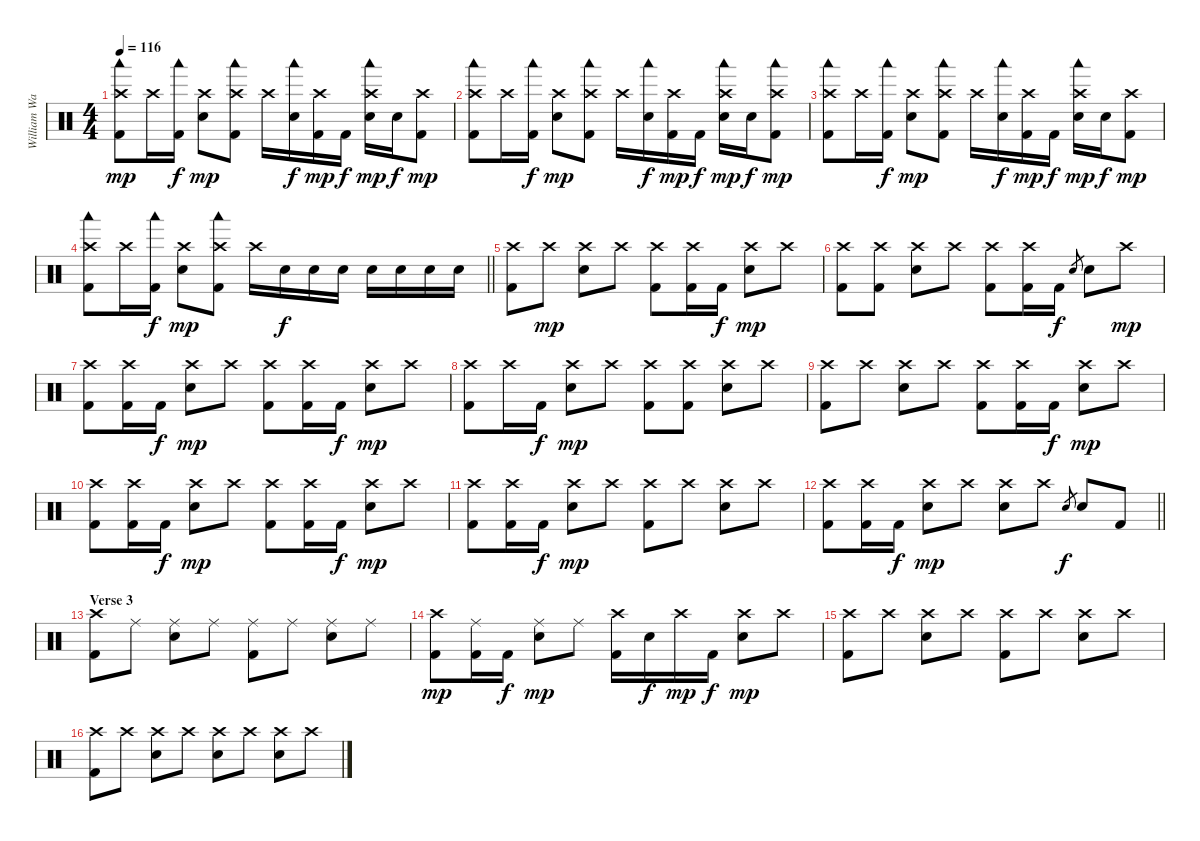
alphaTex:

\track ("William Ward" "William Wa") {instrument percussion}
\staff {score}
\articulation defaults
\ts (4 4)
\tempo 116
\clef neutral
\ks c
("Crash high (hit)" "Woodblock low (hit)" "Kick (hit) 2").8{dy mp} "Crash high (hit)".16 ("Woodblock low (hit)" "Kick (hit) 2").16{dy f} ("Crash high (hit)" "Snare (hit) 2").8{dy mp} ("Crash high (hit)" "Woodblock low (hit)" "Kick (hit) 2").8 "Crash high (hit)".16 ("Woodblock low (hit)" "Snare (hit) 2").16{dy f} ("Crash high (hit)" "Kick (hit) 2").16{dy mp} "Kick (hit) 2".16{dy f} ("Crash high (hit)" "Woodblock low (hit)" "Snare (hit) 2").16{dy mp} "Snare (hit) 2".16{dy f} ("Crash high (hit)" "Kick (hit) 2").8{dy mp} |
("Crash high (hit)" "Woodblock low (hit)" "Kick (hit) 2").8 "Crash high (hit)".16 ("Woodblock low (hit)" "Kick (hit) 2").16{dy f} ("Crash high (hit)" "Snare (hit) 2").8{dy mp} ("Crash high (hit)" "Woodblock low (hit)" "Kick (hit) 2").8 "Crash high (hit)".16 ("Woodblock low (hit)" "Snare (hit) 2").16{dy f} ("Crash high (hit)" "Kick (hit) 2").16{dy mp} "Kick (hit) 2".16{dy f} ("Crash high (hit)" "Woodblock low (hit)" "Snare (hit) 2").16{dy mp} "Snare (hit) 2".16{dy f} ("Crash high (hit)" "Woodblock low (hit)" "Kick (hit) 2").8{dy mp} |
("Crash high (hit)" "Woodblock low (hit)" "Kick (hit) 2").8 "Crash high (hit)".16 ("Woodblock low (hit)" "Kick (hit) 2").16{dy f} ("Crash high (hit)" "Snare (hit) 2").8{dy mp} ("Crash high (hit)" "Woodblock low (hit)" "Kick (hit) 2").8 "Crash high (hit)".16 ("Woodblock low (hit)" "Snare (hit) 2").16{dy f} ("Crash high (hit)" "Kick (hit) 2").16{dy mp} "Kick (hit) 2".16{dy f} ("Crash high (hit)" "Woodblock low (hit)" "Snare (hit) 2").16{dy mp} "Snare (hit) 2".16{dy f} ("Crash high (hit)" "Kick (hit) 2").8{dy mp} |
\barLineRight lightlight
("Crash high (hit)" "Woodblock low (hit)" "Kick (hit) 2").8 "Crash high (hit)".16 ("Woodblock low (hit)" "Kick (hit) 2").16{dy f} ("Crash high (hit)" "Snare (hit) 2").8{dy mp} ("Crash high (hit)" "Woodblock low (hit)" "Kick (hit) 2").8 "Crash high (hit)".16 "Snare (hit) 2".16{dy f} "Snare (hit) 2".16 "Snare (hit) 2".16 "Snare (hit) 2".16 "Snare (hit) 2".16 "Snare (hit) 2".16 "Snare (hit) 2".16 |
("Crash high (hit)" "Kick (hit) 2").8 "Crash high (hit)".8{dy mp} ("Crash high (hit)" "Snare (hit) 2").8 "Crash high (hit)".8 ("Crash high (hit)" "Kick (hit) 2").8 ("Crash high (hit)" "Kick (hit) 2").16 "Kick (hit) 2".16{dy f} ("Crash high (hit)" "Snare (hit) 2").8{dy mp} "Crash high (hit)".8 |
("Crash high (hit)" "Kick (hit) 2").8 ("Crash high (hit)" "Kick (hit) 2").8 ("Crash high (hit)" "Snare (hit) 2").8 "Crash high (hit)".8 ("Crash high (hit)" "Kick (hit) 2").8 ("Crash high (hit)" "Kick (hit) 2").16 "Kick (hit) 2".16{dy f} "Snare (hit) 2".8{gr} "Snare (hit) 2".8 "Crash high (hit)".8{dy mp} |
("Crash high (hit)" "Kick (hit) 2").8 ("Crash high (hit)" "Kick (hit) 2").16 "Kick (hit) 2".16{dy f} ("Crash high (hit)" "Snare (hit) 2").8{dy mp} "Crash high (hit)".8 ("Crash high (hit)" "Kick (hit) 2").8 ("Crash high (hit)" "Kick (hit) 2").16 "Kick (hit) 2".16{dy f} ("Crash high (hit)" "Snare (hit) 2").8{dy mp} "Crash high (hit)".8 |
("Crash high (hit)" "Kick (hit) 2").8 "Crash high (hit)".16 "Kick (hit) 2".16{dy f} ("Crash high (hit)" "Snare (hit) 2").8{dy mp} "Crash high (hit)".8 ("Crash high (hit)" "Kick (hit) 2").8 ("Crash high (hit)" "Kick (hit) 2").8 ("Crash high (hit)" "Snare (hit) 2").8 "Crash high (hit)".8 |
("Crash high (hit)" "Kick (hit) 2").8 "Crash high (hit)".8 ("Crash high (hit)" "Snare (hit) 2").8 "Crash high (hit)".8 ("Crash high (hit)" "Kick (hit) 2").8 ("Crash high (hit)" "Kick (hit) 2").16 "Kick (hit) 2".16{dy f} ("Crash high (hit)" "Snare (hit) 2").8{dy mp} "Crash high (hit)".8 |
("Crash high (hit)" "Kick (hit) 2").8 ("Crash high (hit)" "Kick (hit) 2").16 "Kick (hit) 2".16{dy f} ("Crash high (hit)" "Snare (hit) 2").8{dy mp} "Crash high (hit)".8 ("Crash high (hit)" "Kick (hit) 2").8 ("Crash high (hit)" "Kick (hit) 2").16 "Kick (hit) 2".16{dy f} ("Crash high (hit)" "Snare (hit) 2").8{dy mp} "Crash high (hit)".8 |
("Crash high (hit)" "Kick (hit) 2").8 ("Crash high (hit)" "Kick (hit) 2").16 "Kick (hit) 2".16{dy f} ("Crash high (hit)" "Snare (hit) 2").8{dy mp} "Crash high (hit)".8 ("Crash high (hit)" "Kick (hit) 2").8 "Crash high (hit)".8 ("Crash high (hit)" "Snare (hit) 2").8 "Crash high (hit)".8 |
\barLineRight lightlight
("Crash high (hit)" "Kick (hit) 2").8 ("Crash high (hit)" "Kick (hit) 2").16 "Kick (hit) 2".16{dy f} ("Crash high (hit)" "Snare (hit) 2").8{dy mp} "Crash high (hit)".8 ("Crash high (hit)" "Snare (hit) 2").8 "Crash high (hit)".8 "Snare (hit) 2".8{gr dy f} "Snare (hit) 2".8 "Kick (hit) 2".8 |
\section ("" "Verse 3")
("Crash high (hit)" "Kick (hit) 2").8 "Ride (middle)".8 ("Ride (middle)" "Snare (hit) 2").8 "Ride (middle)".8 ("Ride (middle)" "Kick (hit) 2").8 "Ride (middle)".8 ("Ride (middle)" "Snare (hit) 2").8 "Ride (middle)".8 |
("Crash high (hit)" "Kick (hit) 2").8{dy mp} ("Ride (middle)" "Kick (hit) 2").16 "Kick (hit) 2".16{dy f} ("Ride (middle)" "Snare (hit) 2").8{dy mp} "Ride (middle)".8 ("Crash high (hit)" "Kick (hit) 2").16 "Snare (hit) 2".16{dy f} "Crash high (hit)".16{dy mp} "Kick (hit) 2".16{dy f} ("Crash high (hit)" "Snare (hit) 2").8{dy mp} "Crash high (hit)".8 |
("Crash high (hit)" "Kick (hit) 2").8 "Crash high (hit)".8 ("Crash high (hit)" "Snare (hit) 2").8 "Crash high (hit)".8 ("Crash high (hit)" "Kick (hit) 2").8 "Crash high (hit)".8 ("Crash high (hit)" "Snare (hit) 2").8 "Crash high (hit)".8 |
("Crash high (hit)" "Kick (hit) 2").8 "Crash high (hit)".8 ("Crash high (hit)" "Snare (hit) 2").8 "Crash high (hit)".8 ("Crash high (hit)" "Snare (hit) 2").8 "Crash high (hit)".8 ("Crash high (hit)" "Snare (hit) 2").8 "Crash high (hit)".8
